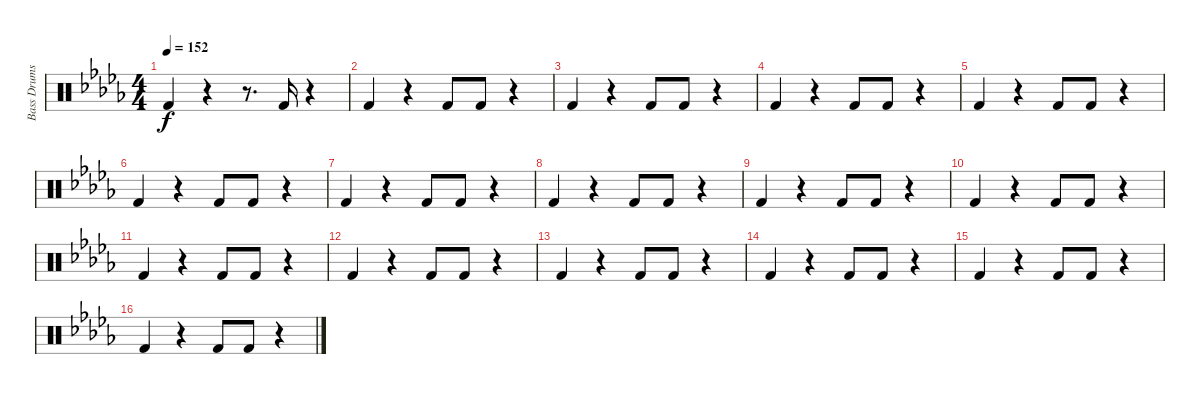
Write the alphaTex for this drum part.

\track ("Bass Drums" "Bass Drums") {instrument percussion}
\staff {score}
\articulation defaults
\ts (4 4)
\tempo 152
\clef neutral
\ks db "Kick (hit) 2".4{dy f}
r.4 r.8{d} "Kick (hit) 2".16 r.4 |
"Kick (hit) 2".4 r.4 "Kick (hit) 2".8 "Kick (hit) 2".8 r.4 |
"Kick (hit) 2".4 r.4 "Kick (hit) 2".8 "Kick (hit) 2".8 r.4 |
"Kick (hit) 2".4 r.4 "Kick (hit) 2".8 "Kick (hit) 2".8 r.4 |
"Kick (hit) 2".4 r.4 "Kick (hit) 2".8 "Kick (hit) 2".8 r.4 |
"Kick (hit) 2".4 r.4 "Kick (hit) 2".8 "Kick (hit) 2".8 r.4 |
"Kick (hit) 2".4 r.4 "Kick (hit) 2".8 "Kick (hit) 2".8 r.4 |
"Kick (hit) 2".4 r.4 "Kick (hit) 2".8 "Kick (hit) 2".8 r.4 |
"Kick (hit) 2".4 r.4 "Kick (hit) 2".8 "Kick (hit) 2".8 r.4 |
"Kick (hit) 2".4 r.4 "Kick (hit) 2".8 "Kick (hit) 2".8 r.4 |
"Kick (hit) 2".4 r.4 "Kick (hit) 2".8 "Kick (hit) 2".8 r.4 |
"Kick (hit) 2".4 r.4 "Kick (hit) 2".8 "Kick (hit) 2".8 r.4 |
"Kick (hit) 2".4 r.4 "Kick (hit) 2".8 "Kick (hit) 2".8 r.4 |
"Kick (hit) 2".4 r.4 "Kick (hit) 2".8 "Kick (hit) 2".8 r.4 |
"Kick (hit) 2".4 r.4 "Kick (hit) 2".8 "Kick (hit) 2".8 r.4 |
"Kick (hit) 2".4 r.4 "Kick (hit) 2".8 "Kick (hit) 2".8 r.4
